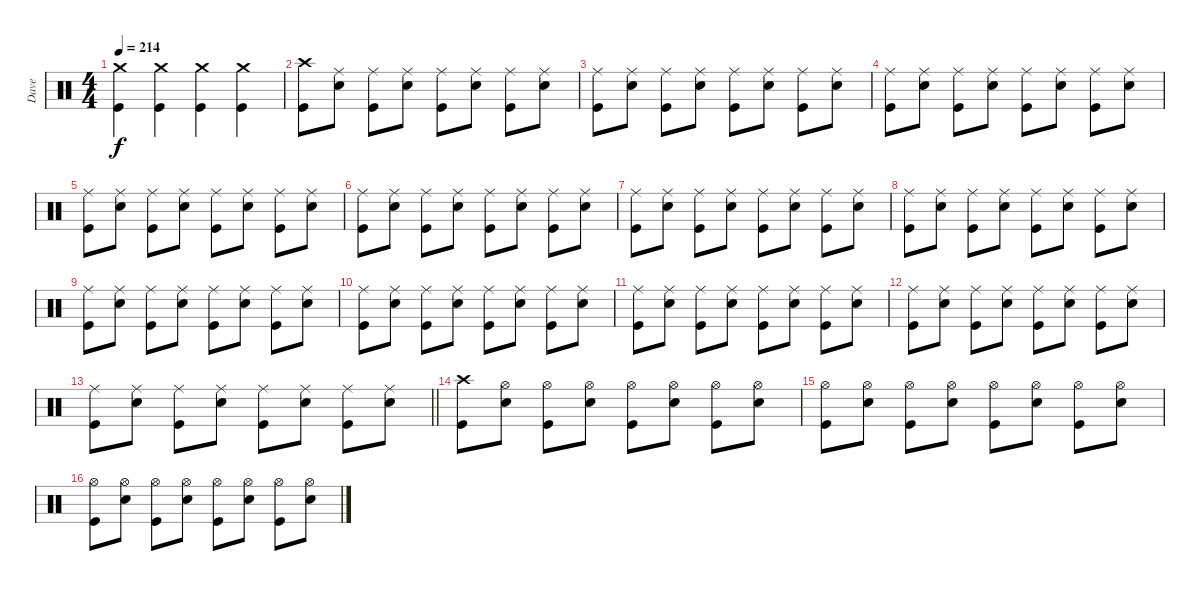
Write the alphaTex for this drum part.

\track ("Dave" "Dave") {instrument percussion}
\staff {score}
\articulation defaults
\ts (4 4)
\tempo 214
\clef neutral
\ks c
("Crash medium (hit)" "Kick (hit)").4{dy f} ("Crash medium (hit)" "Kick (hit)").4 ("Crash medium (hit)" "Kick (hit)").4 ("Crash medium (hit)" "Kick (hit)").4 |
("Crash high (hit)" "Kick (hit)").8 ("Ride (middle)" "Snare (hit) 2").8 ("Ride (middle)" "Kick (hit)").8 ("Ride (middle)" "Snare (hit) 2").8 ("Ride (middle)" "Kick (hit)").8 ("Ride (middle)" "Snare (hit) 2").8 ("Ride (middle)" "Kick (hit)").8 ("Ride (middle)" "Snare (hit) 2").8 |
("Ride (middle)" "Kick (hit)").8 ("Ride (middle)" "Snare (hit) 2").8 ("Ride (middle)" "Kick (hit)").8 ("Ride (middle)" "Snare (hit) 2").8 ("Ride (middle)" "Kick (hit)").8 ("Ride (middle)" "Snare (hit) 2").8 ("Ride (middle)" "Kick (hit)").8 ("Ride (middle)" "Snare (hit) 2").8 |
("Ride (middle)" "Kick (hit)").8 ("Ride (middle)" "Snare (hit) 2").8 ("Ride (middle)" "Kick (hit)").8 ("Ride (middle)" "Snare (hit) 2").8 ("Ride (middle)" "Kick (hit)").8 ("Ride (middle)" "Snare (hit) 2").8 ("Ride (middle)" "Kick (hit)").8 ("Ride (middle)" "Snare (hit) 2").8 |
("Ride (middle)" "Kick (hit)").8 ("Ride (middle)" "Snare (hit) 2").8 ("Ride (middle)" "Kick (hit)").8 ("Ride (middle)" "Snare (hit) 2").8 ("Ride (middle)" "Kick (hit)").8 ("Ride (middle)" "Snare (hit) 2").8 ("Ride (middle)" "Kick (hit)").8 ("Ride (middle)" "Snare (hit) 2").8 |
("Ride (middle)" "Kick (hit)").8 ("Ride (middle)" "Snare (hit) 2").8 ("Ride (middle)" "Kick (hit)").8 ("Ride (middle)" "Snare (hit) 2").8 ("Ride (middle)" "Kick (hit)").8 ("Ride (middle)" "Snare (hit) 2").8 ("Ride (middle)" "Kick (hit)").8 ("Ride (middle)" "Snare (hit) 2").8 |
("Ride (middle)" "Kick (hit)").8 ("Ride (middle)" "Snare (hit) 2").8 ("Ride (middle)" "Kick (hit)").8 ("Ride (middle)" "Snare (hit) 2").8 ("Ride (middle)" "Kick (hit)").8 ("Ride (middle)" "Snare (hit) 2").8 ("Ride (middle)" "Kick (hit)").8 ("Ride (middle)" "Snare (hit) 2").8 |
("Ride (middle)" "Kick (hit)").8 ("Ride (middle)" "Snare (hit) 2").8 ("Ride (middle)" "Kick (hit)").8 ("Ride (middle)" "Snare (hit) 2").8 ("Ride (middle)" "Kick (hit)").8 ("Ride (middle)" "Snare (hit) 2").8 ("Ride (middle)" "Kick (hit)").8 ("Ride (middle)" "Snare (hit) 2").8 |
("Ride (middle)" "Kick (hit)").8 ("Ride (middle)" "Snare (hit) 2").8 ("Ride (middle)" "Kick (hit)").8 ("Ride (middle)" "Snare (hit) 2").8 ("Ride (middle)" "Kick (hit)").8 ("Ride (middle)" "Snare (hit) 2").8 ("Ride (middle)" "Kick (hit)").8 ("Ride (middle)" "Snare (hit) 2").8 |
("Ride (middle)" "Kick (hit)").8 ("Ride (middle)" "Snare (hit) 2").8 ("Ride (middle)" "Kick (hit)").8 ("Ride (middle)" "Snare (hit) 2").8 ("Ride (middle)" "Kick (hit)").8 ("Ride (middle)" "Snare (hit) 2").8 ("Ride (middle)" "Kick (hit)").8 ("Ride (middle)" "Snare (hit) 2").8 |
("Ride (middle)" "Kick (hit)").8 ("Ride (middle)" "Snare (hit) 2").8 ("Ride (middle)" "Kick (hit)").8 ("Ride (middle)" "Snare (hit) 2").8 ("Ride (middle)" "Kick (hit)").8 ("Ride (middle)" "Snare (hit) 2").8 ("Ride (middle)" "Kick (hit)").8 ("Ride (middle)" "Snare (hit) 2").8 |
("Ride (middle)" "Kick (hit)").8 ("Ride (middle)" "Snare (hit) 2").8 ("Ride (middle)" "Kick (hit)").8 ("Ride (middle)" "Snare (hit) 2").8 ("Ride (middle)" "Kick (hit)").8 ("Ride (middle)" "Snare (hit) 2").8 ("Ride (middle)" "Kick (hit)").8 ("Ride (middle)" "Snare (hit) 2").8 |
\barLineRight lightlight
("Ride (middle)" "Kick (hit)").8 ("Ride (middle)" "Snare (hit) 2").8 ("Ride (middle)" "Kick (hit)").8 ("Ride (middle)" "Snare (hit) 2").8 ("Ride (middle)" "Kick (hit)").8 ("Ride (middle)" "Snare (hit) 2").8 ("Ride (middle)" "Kick (hit)").8 ("Ride (middle)" "Snare (hit) 2").8 |
("Crash high (hit)" "Kick (hit)").8 ("Hi-Hat (open)" "Snare (hit) 2").8 ("Hi-Hat (open)" "Kick (hit)").8 ("Hi-Hat (open)" "Snare (hit) 2").8 ("Hi-Hat (open)" "Kick (hit)").8 ("Hi-Hat (open)" "Snare (hit) 2").8 ("Hi-Hat (open)" "Kick (hit)").8 ("Hi-Hat (open)" "Snare (hit) 2").8 |
("Hi-Hat (open)" "Kick (hit)").8 ("Hi-Hat (open)" "Snare (hit) 2").8 ("Hi-Hat (open)" "Kick (hit)").8 ("Hi-Hat (open)" "Snare (hit) 2").8 ("Hi-Hat (open)" "Kick (hit)").8 ("Hi-Hat (open)" "Snare (hit) 2").8 ("Hi-Hat (open)" "Kick (hit)").8 ("Hi-Hat (open)" "Snare (hit) 2").8 |
("Hi-Hat (open)" "Kick (hit)").8 ("Hi-Hat (open)" "Snare (hit) 2").8 ("Hi-Hat (open)" "Kick (hit)").8 ("Hi-Hat (open)" "Snare (hit) 2").8 ("Hi-Hat (open)" "Kick (hit)").8 ("Hi-Hat (open)" "Snare (hit) 2").8 ("Hi-Hat (open)" "Kick (hit)").8 ("Hi-Hat (open)" "Snare (hit) 2").8
